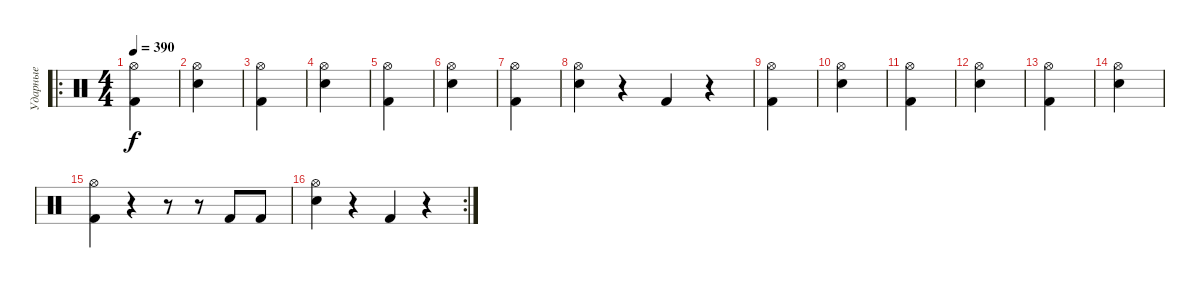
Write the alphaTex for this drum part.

\track ("Ударные" "Ударные") {instrument percussion}
\staff {score}
\articulation defaults
\ro
\ts (4 4)
\tempo 390
\clef neutral
\ks c
("Kick (hit) 2" "Hi-Hat (open)").4{dy f} |
("Electric Snare (hit)" "Hi-Hat (open)").4 |
("Kick (hit) 2" "Hi-Hat (open)").4 |
("Electric Snare (hit)" "Hi-Hat (open)").4 |
("Kick (hit) 2" "Hi-Hat (open)").4 |
("Electric Snare (hit)" "Hi-Hat (open)").4 |
("Kick (hit) 2" "Hi-Hat (open)").4 |
("Electric Snare (hit)" "Hi-Hat (open)").4 r.4 "Kick (hit) 2".4 r.4 |
("Kick (hit) 2" "Hi-Hat (open)").4 |
("Electric Snare (hit)" "Hi-Hat (open)").4 |
("Kick (hit) 2" "Hi-Hat (open)").4 |
("Electric Snare (hit)" "Hi-Hat (open)").4 |
("Kick (hit) 2" "Hi-Hat (open)").4 |
("Electric Snare (hit)" "Hi-Hat (open)").4 |
("Kick (hit) 2" "Hi-Hat (open)").4 r.4 r.8 r.8 "Kick (hit) 2".8 "Kick (hit) 2".8 |
\rc 2
("Electric Snare (hit)" "Hi-Hat (open)").4 r.4 "Kick (hit) 2".4 r.4
